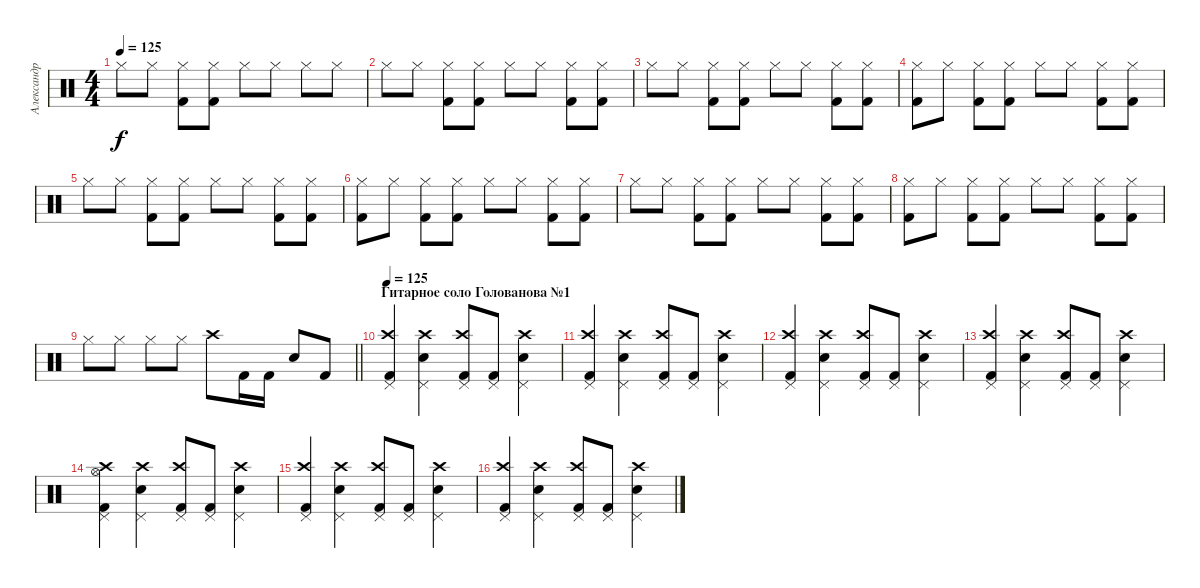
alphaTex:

\track ("Александр Манякин" "Александр ") {instrument percussion}
\staff {score}
\articulation defaults
\ts (4 4)
\tempo 125
\clef neutral
\ks c "Hi-Hat (closed)".8{dy f} "Hi-Hat (closed)".8
("Kick (hit) 2" "Hi-Hat (closed)").8 ("Kick (hit) 2" "Hi-Hat (closed)").8 "Hi-Hat (closed)".8 "Hi-Hat (closed)".8 "Hi-Hat (closed)".8 "Hi-Hat (closed)".8 |
"Hi-Hat (closed)".8 "Hi-Hat (closed)".8 ("Kick (hit) 2" "Hi-Hat (closed)").8 ("Kick (hit) 2" "Hi-Hat (closed)").8 "Hi-Hat (closed)".8 "Hi-Hat (closed)".8 ("Kick (hit) 2" "Hi-Hat (closed)").8 ("Kick (hit) 2" "Hi-Hat (closed)").8 |
"Hi-Hat (closed)".8 "Hi-Hat (closed)".8 ("Kick (hit) 2" "Hi-Hat (closed)").8 ("Kick (hit) 2" "Hi-Hat (closed)").8 "Hi-Hat (closed)".8 "Hi-Hat (closed)".8 ("Kick (hit) 2" "Hi-Hat (closed)").8 ("Kick (hit) 2" "Hi-Hat (closed)").8 |
("Kick (hit) 2" "Hi-Hat (closed)").8 "Hi-Hat (closed)".8 ("Kick (hit) 2" "Hi-Hat (closed)").8 ("Kick (hit) 2" "Hi-Hat (closed)").8 "Hi-Hat (closed)".8 "Hi-Hat (closed)".8 ("Kick (hit) 2" "Hi-Hat (closed)").8 ("Kick (hit) 2" "Hi-Hat (closed)").8 |
"Hi-Hat (closed)".8 "Hi-Hat (closed)".8 ("Kick (hit) 2" "Hi-Hat (closed)").8 ("Kick (hit) 2" "Hi-Hat (closed)").8 "Hi-Hat (closed)".8 "Hi-Hat (closed)".8 ("Kick (hit) 2" "Hi-Hat (closed)").8 ("Kick (hit) 2" "Hi-Hat (closed)").8 |
("Kick (hit) 2" "Hi-Hat (closed)").8 "Hi-Hat (closed)".8 ("Kick (hit) 2" "Hi-Hat (closed)").8 ("Kick (hit) 2" "Hi-Hat (closed)").8 "Hi-Hat (closed)".8 "Hi-Hat (closed)".8 ("Kick (hit) 2" "Hi-Hat (closed)").8 ("Kick (hit) 2" "Hi-Hat (closed)").8 |
"Hi-Hat (closed)".8 "Hi-Hat (closed)".8 ("Kick (hit) 2" "Hi-Hat (closed)").8 ("Kick (hit) 2" "Hi-Hat (closed)").8 "Hi-Hat (closed)".8 "Hi-Hat (closed)".8 ("Kick (hit) 2" "Hi-Hat (closed)").8 ("Kick (hit) 2" "Hi-Hat (closed)").8 |
("Kick (hit) 2" "Hi-Hat (closed)").8 "Hi-Hat (closed)".8 ("Kick (hit) 2" "Hi-Hat (closed)").8 ("Kick (hit) 2" "Hi-Hat (closed)").8 "Hi-Hat (closed)".8 "Hi-Hat (closed)".8 ("Kick (hit) 2" "Hi-Hat (closed)").8 ("Kick (hit) 2" "Hi-Hat (closed)").8 |
\barLineRight lightlight "Hi-Hat (closed)".8 "Hi-Hat (closed)".8 "Hi-Hat (closed)".8 "Hi-Hat (closed)".8 "Crash high (hit)".8 "Kick (hit) 2".16 "Kick (hit) 2".16 "Snare (hit) 2".8 "Kick (hit) 2".8
|
\section ("" "Гитарное соло Голованова №1")
\tempo 125
("Pedal Hi-Hat (hit)" "Crash high (hit)" "Kick (hit) 2").4 ("Pedal Hi-Hat (hit)" "Crash high (hit)" "Snare (hit) 2").4 ("Pedal Hi-Hat (hit)" "Crash high (hit)" "Kick (hit) 2").8 ("Pedal Hi-Hat (hit)" "Kick (hit) 2").8 ("Pedal Hi-Hat (hit)" "Crash high (hit)" "Snare (hit) 2").4 |
("Pedal Hi-Hat (hit)" "Crash high (hit)" "Kick (hit) 2").4 ("Pedal Hi-Hat (hit)" "Crash high (hit)" "Snare (hit) 2").4 ("Pedal Hi-Hat (hit)" "Crash high (hit)" "Kick (hit) 2").8 ("Pedal Hi-Hat (hit)" "Kick (hit) 2").8 ("Pedal Hi-Hat (hit)" "Crash high (hit)" "Snare (hit) 2").4 |
("Pedal Hi-Hat (hit)" "Crash high (hit)" "Kick (hit) 2").4 ("Pedal Hi-Hat (hit)" "Crash high (hit)" "Snare (hit) 2").4 ("Pedal Hi-Hat (hit)" "Crash high (hit)" "Kick (hit) 2").8 ("Pedal Hi-Hat (hit)" "Kick (hit) 2").8 ("Pedal Hi-Hat (hit)" "Crash high (hit)" "Snare (hit) 2").4 |
("Pedal Hi-Hat (hit)" "Crash high (hit)" "Kick (hit) 2").4 ("Pedal Hi-Hat (hit)" "Crash high (hit)" "Snare (hit) 2").4 ("Pedal Hi-Hat (hit)" "Crash high (hit)" "Kick (hit) 2").8 ("Pedal Hi-Hat (hit)" "Kick (hit) 2").8 ("Pedal Hi-Hat (hit)" "Crash high (hit)" "Snare (hit) 2").4 |
("Pedal Hi-Hat (hit)" "Crash high (hit)" "Kick (hit) 2" "Hi-Hat (open)").4 ("Pedal Hi-Hat (hit)" "Crash high (hit)" "Snare (hit) 2").4 ("Pedal Hi-Hat (hit)" "Crash high (hit)" "Kick (hit) 2").8 ("Pedal Hi-Hat (hit)" "Kick (hit) 2").8 ("Pedal Hi-Hat (hit)" "Crash high (hit)" "Snare (hit) 2").4 |
("Pedal Hi-Hat (hit)" "Crash high (hit)" "Kick (hit) 2").4 ("Pedal Hi-Hat (hit)" "Crash high (hit)" "Snare (hit) 2").4 ("Pedal Hi-Hat (hit)" "Crash high (hit)" "Kick (hit) 2").8 ("Pedal Hi-Hat (hit)" "Kick (hit) 2").8 ("Pedal Hi-Hat (hit)" "Crash high (hit)" "Snare (hit) 2").4 |
("Pedal Hi-Hat (hit)" "Crash high (hit)" "Kick (hit) 2").4 ("Pedal Hi-Hat (hit)" "Crash high (hit)" "Snare (hit) 2").4 ("Pedal Hi-Hat (hit)" "Crash high (hit)" "Kick (hit) 2").8 ("Pedal Hi-Hat (hit)" "Kick (hit) 2").8 ("Pedal Hi-Hat (hit)" "Crash high (hit)" "Snare (hit) 2").4
